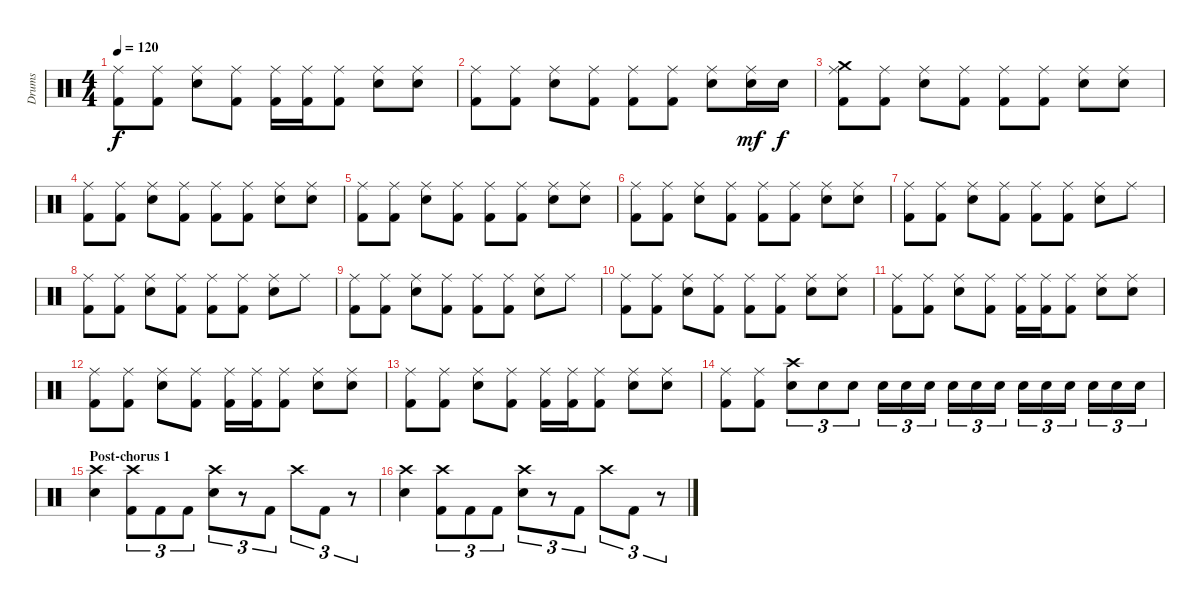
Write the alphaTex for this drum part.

\track ("Drums" "Drums") {instrument percussion}
\staff {score}
\articulation defaults
\ts (4 4)
\tempo 120
\clef neutral
\ks c
("Ride (middle)" "Kick (hit) 2").8{dy f} ("Ride (middle)" "Kick (hit) 2").8 ("Ride (middle)" "Electric Snare (hit)").8 ("Ride (middle)" "Kick (hit) 2").8 ("Ride (middle)" "Kick (hit) 2").16 ("Ride (middle)" "Kick (hit) 2").16 ("Ride (middle)" "Kick (hit) 2").8 ("Ride (middle)" "Electric Snare (hit)").8 ("Ride (middle)" "Electric Snare (hit)").8 |
("Ride (middle)" "Kick (hit) 2").8 ("Ride (middle)" "Kick (hit) 2").8 ("Ride (middle)" "Electric Snare (hit)").8 ("Ride (middle)" "Kick (hit) 2").8 ("Ride (middle)" "Kick (hit) 2").8 ("Ride (middle)" "Kick (hit) 2").8 ("Ride (middle)" "Electric Snare (hit)").8 ("Ride (middle)" "Electric Snare (hit)").16{dy mf} "Electric Snare (hit)".16{dy f} |
("Ride (middle)" "Crash medium (hit)" "Kick (hit) 2").8 ("Ride (middle)" "Kick (hit) 2").8 ("Ride (middle)" "Electric Snare (hit)").8 ("Ride (middle)" "Kick (hit) 2").8 ("Ride (middle)" "Kick (hit) 2").8 ("Ride (middle)" "Kick (hit) 2").8 ("Ride (middle)" "Electric Snare (hit)").8 ("Ride (middle)" "Electric Snare (hit)").8 |
("Ride (middle)" "Kick (hit) 2").8 ("Ride (middle)" "Kick (hit) 2").8 ("Ride (middle)" "Electric Snare (hit)").8 ("Ride (middle)" "Kick (hit) 2").8 ("Ride (middle)" "Kick (hit) 2").8 ("Ride (middle)" "Kick (hit) 2").8 ("Ride (middle)" "Electric Snare (hit)").8 ("Ride (middle)" "Electric Snare (hit)").8 |
("Ride (middle)" "Kick (hit) 2").8 ("Ride (middle)" "Kick (hit) 2").8 ("Ride (middle)" "Electric Snare (hit)").8 ("Ride (middle)" "Kick (hit) 2").8 ("Ride (middle)" "Kick (hit) 2").8 ("Ride (middle)" "Kick (hit) 2").8 ("Ride (middle)" "Electric Snare (hit)").8 ("Ride (middle)" "Electric Snare (hit)").8 |
("Ride (middle)" "Kick (hit) 2").8 ("Ride (middle)" "Kick (hit) 2").8 ("Ride (middle)" "Electric Snare (hit)").8 ("Ride (middle)" "Kick (hit) 2").8 ("Ride (middle)" "Kick (hit) 2").8 ("Ride (middle)" "Kick (hit) 2").8 ("Ride (middle)" "Electric Snare (hit)").8 ("Ride (middle)" "Electric Snare (hit)").8 |
("Ride (middle)" "Kick (hit) 2").8 ("Ride (middle)" "Kick (hit) 2").8 ("Ride (middle)" "Electric Snare (hit)").8 ("Ride (middle)" "Kick (hit) 2").8 ("Ride (middle)" "Kick (hit) 2").8 ("Ride (middle)" "Kick (hit) 2").8 ("Ride (middle)" "Electric Snare (hit)").8 "Ride (middle)".8 |
("Ride (middle)" "Kick (hit) 2").8 ("Ride (middle)" "Kick (hit) 2").8 ("Ride (middle)" "Electric Snare (hit)").8 ("Ride (middle)" "Kick (hit) 2").8 ("Ride (middle)" "Kick (hit) 2").8 ("Ride (middle)" "Kick (hit) 2").8 ("Ride (middle)" "Electric Snare (hit)").8 "Ride (middle)".8 |
("Ride (middle)" "Kick (hit) 2").8 ("Ride (middle)" "Kick (hit) 2").8 ("Ride (middle)" "Electric Snare (hit)").8 ("Ride (middle)" "Kick (hit) 2").8 ("Ride (middle)" "Kick (hit) 2").8 ("Ride (middle)" "Kick (hit) 2").8 ("Ride (middle)" "Electric Snare (hit)").8 "Ride (middle)".8 |
("Ride (middle)" "Kick (hit) 2").8 ("Ride (middle)" "Kick (hit) 2").8 ("Ride (middle)" "Electric Snare (hit)").8 ("Ride (middle)" "Kick (hit) 2").8 ("Ride (middle)" "Kick (hit) 2").8 ("Ride (middle)" "Kick (hit) 2").8 ("Ride (middle)" "Electric Snare (hit)").8 ("Ride (middle)" "Electric Snare (hit)").8 |
("Ride (middle)" "Kick (hit) 2").8 ("Ride (middle)" "Kick (hit) 2").8 ("Ride (middle)" "Electric Snare (hit)").8 ("Ride (middle)" "Kick (hit) 2").8 ("Ride (middle)" "Kick (hit) 2").16 ("Ride (middle)" "Kick (hit) 2").16 ("Ride (middle)" "Kick (hit) 2").8 ("Ride (middle)" "Electric Snare (hit)").8 ("Ride (middle)" "Electric Snare (hit)").8 |
("Ride (middle)" "Kick (hit) 2").8 ("Ride (middle)" "Kick (hit) 2").8 ("Ride (middle)" "Electric Snare (hit)").8 ("Ride (middle)" "Kick (hit) 2").8 ("Ride (middle)" "Kick (hit) 2").16 ("Ride (middle)" "Kick (hit) 2").16 ("Ride (middle)" "Kick (hit) 2").8 ("Ride (middle)" "Electric Snare (hit)").8 ("Ride (middle)" "Electric Snare (hit)").8 |
("Ride (middle)" "Kick (hit) 2").8 ("Ride (middle)" "Kick (hit) 2").8 ("Ride (middle)" "Electric Snare (hit)").8 ("Ride (middle)" "Kick (hit) 2").8 ("Ride (middle)" "Kick (hit) 2").16 ("Ride (middle)" "Kick (hit) 2").16 ("Ride (middle)" "Kick (hit) 2").8 ("Ride (middle)" "Electric Snare (hit)").8 ("Ride (middle)" "Electric Snare (hit)").8 |
("Ride (middle)" "Kick (hit) 2").8 ("Ride (middle)" "Kick (hit) 2").8 ("Crash high (hit)" "Electric Snare (hit)").8{tu (3 2)} "Electric Snare (hit)".8{tu (3 2)} "Electric Snare (hit)".8{tu (3 2)} "Electric Snare (hit)".16{tu (3 2)} "Electric Snare (hit)".16{tu (3 2)} "Electric Snare (hit)".16{tu (3 2)} "Electric Snare (hit)".16{tu (3 2)} "Electric Snare (hit)".16{tu (3 2)} "Electric Snare (hit)".16{tu (3 2)} "Electric Snare (hit)".16{tu (3 2)} "Electric Snare (hit)".16{tu (3 2)} "Electric Snare (hit)".16{tu (3 2)} "Electric Snare (hit)".16{tu (3 2)} "Electric Snare (hit)".16{tu (3 2)} "Electric Snare (hit)".16{tu (3 2)} |
\section ("" "Post-chorus 1")
("Crash high (hit)" "Electric Snare (hit)").4 ("Crash high (hit)" "Kick (hit) 2").8{tu (3 2)} "Kick (hit) 2".8{tu (3 2)} "Kick (hit) 2".8{tu (3 2)} ("Crash high (hit)" "Electric Snare (hit)").8{tu (3 2)} r.8{tu (3 2)} "Kick (hit) 2".8{tu (3 2)} "Crash high (hit)".8{tu (3 2)} "Kick (hit) 2".8{tu (3 2)} r.8{tu (3 2)} |
("Crash high (hit)" "Electric Snare (hit)").4 ("Crash high (hit)" "Kick (hit) 2").8{tu (3 2)} "Kick (hit) 2".8{tu (3 2)} "Kick (hit) 2".8{tu (3 2)} ("Crash high (hit)" "Electric Snare (hit)").8{tu (3 2)} r.8{tu (3 2)} "Kick (hit) 2".8{tu (3 2)} "Crash high (hit)".8{tu (3 2)} "Kick (hit) 2".8{tu (3 2)} r.8{tu (3 2)}
